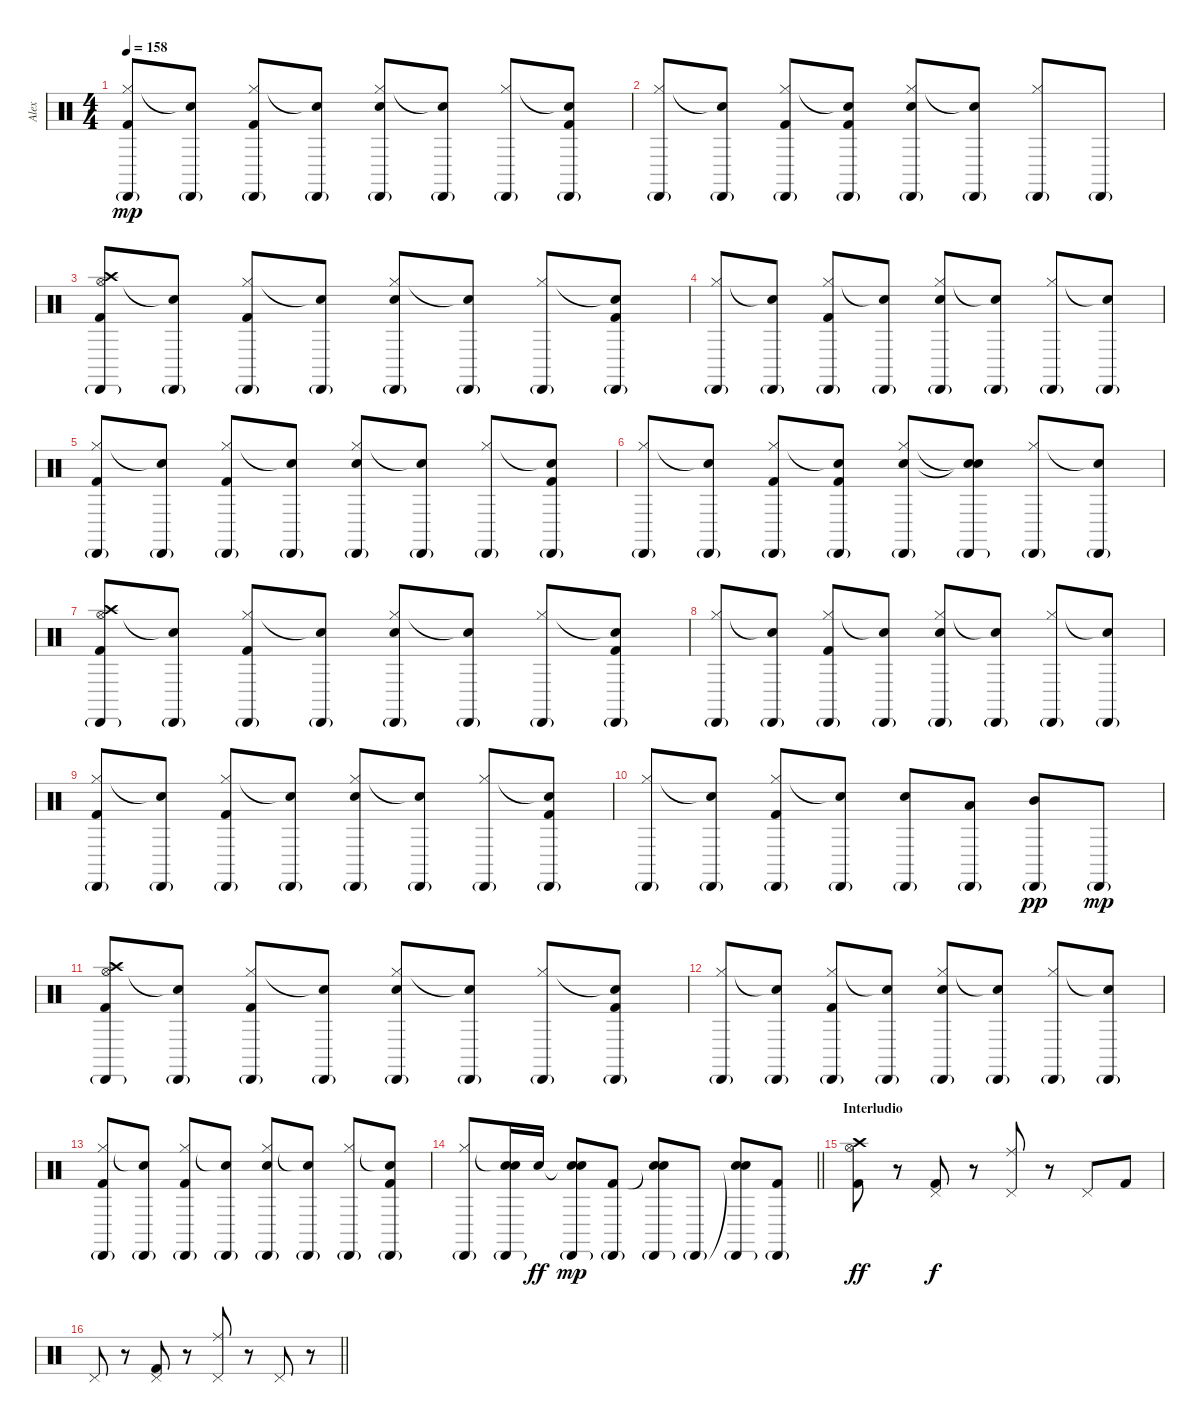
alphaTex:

\track ("Alex" "Alex") {instrument percussion}
\staff {score}
\articulation defaults
\ts (4 4)
\tempo 158
\clef neutral
\ks c
("Hi-Hat (closed)" "Kick (hit) 2" "Cabasa (hit)"{g}).8{dy mp} ("Snare (hit)"{t} "Cabasa (hit)"{g}).8 ("Hi-Hat (closed)" "Kick (hit) 2" "Cabasa (hit)"{g}).8 ("Snare (hit)"{t} "Cabasa (hit)"{g}).8 ("Hi-Hat (closed)" "Electric Snare (hit)" "Cabasa (hit)"{g}).8 ("Snare (hit)"{t} "Cabasa (hit)"{g}).8 ("Hi-Hat (closed)" "Cabasa (hit)"{g}).8 ("Snare (hit)"{t} "Kick (hit) 2" "Cabasa (hit)"{g}).8 |
("Hi-Hat (closed)" "Cabasa (hit)"{g}).8 ("Snare (hit)"{t} "Cabasa (hit)"{g}).8 ("Hi-Hat (closed)" "Kick (hit) 2" "Cabasa (hit)"{g}).8 ("Snare (hit)"{t} "Kick (hit) 2" "Cabasa (hit)"{g}).8 ("Hi-Hat (closed)" "Electric Snare (hit)" "Cabasa (hit)"{g}).8 ("Snare (hit)"{t} "Cabasa (hit)"{g}).8 ("Hi-Hat (closed)" "Cabasa (hit)"{g}).8 "Cabasa (hit)"{g}.8 |
("Hi-Hat (open)" "Kick (hit) 2" "Crash high (hit)" "Cabasa (hit)"{g}).8 ("Snare (hit)"{t} "Cabasa (hit)"{g}).8 ("Hi-Hat (closed)" "Kick (hit) 2" "Cabasa (hit)"{g}).8 ("Snare (hit)"{t} "Cabasa (hit)"{g}).8 ("Hi-Hat (closed)" "Electric Snare (hit)" "Cabasa (hit)"{g}).8 ("Snare (hit)"{t} "Cabasa (hit)"{g}).8 ("Hi-Hat (closed)" "Cabasa (hit)"{g}).8 ("Snare (hit)"{t} "Kick (hit) 2" "Cabasa (hit)"{g}).8 |
("Hi-Hat (closed)" "Cabasa (hit)"{g}).8 ("Snare (hit)"{t} "Cabasa (hit)"{g}).8 ("Hi-Hat (closed)" "Kick (hit) 2" "Cabasa (hit)"{g}).8 ("Snare (hit)"{t} "Cabasa (hit)"{g}).8 ("Hi-Hat (closed)" "Electric Snare (hit)" "Cabasa (hit)"{g}).8 ("Snare (hit)"{t} "Cabasa (hit)"{g}).8 ("Hi-Hat (closed)" "Cabasa (hit)"{g}).8 ("Snare (hit)"{t} "Cabasa (hit)"{g}).8 |
("Hi-Hat (closed)" "Kick (hit) 2" "Cabasa (hit)"{g}).8 ("Snare (hit)"{t} "Cabasa (hit)"{g}).8 ("Hi-Hat (closed)" "Kick (hit) 2" "Cabasa (hit)"{g}).8 ("Snare (hit)"{t} "Cabasa (hit)"{g}).8 ("Hi-Hat (closed)" "Electric Snare (hit)" "Cabasa (hit)"{g}).8 ("Snare (hit)"{t} "Cabasa (hit)"{g}).8 ("Hi-Hat (closed)" "Cabasa (hit)"{g}).8 ("Snare (hit)"{t} "Kick (hit) 2" "Cabasa (hit)"{g}).8 |
("Hi-Hat (closed)" "Cabasa (hit)"{g}).8 ("Snare (hit)"{t} "Cabasa (hit)"{g}).8 ("Hi-Hat (closed)" "Kick (hit) 2" "Cabasa (hit)"{g}).8 ("Snare (hit)"{t} "Kick (hit) 2" "Cabasa (hit)"{g}).8 ("Hi-Hat (closed)" "Electric Snare (hit)" "Cabasa (hit)"{g}).8 ("Snare (hit)"{t} "Snare (hit)"{t} "Cabasa (hit)"{g}).8 ("Hi-Hat (closed)" "Cabasa (hit)"{g}).8 ("Snare (hit)"{t} "Cabasa (hit)"{g}).8 |
("Hi-Hat (open)" "Kick (hit) 2" "Crash high (hit)" "Cabasa (hit)"{g}).8 ("Snare (hit)"{t} "Cabasa (hit)"{g}).8 ("Hi-Hat (closed)" "Kick (hit) 2" "Cabasa (hit)"{g}).8 ("Snare (hit)"{t} "Cabasa (hit)"{g}).8 ("Hi-Hat (closed)" "Electric Snare (hit)" "Cabasa (hit)"{g}).8 ("Snare (hit)"{t} "Cabasa (hit)"{g}).8 ("Hi-Hat (closed)" "Cabasa (hit)"{g}).8 ("Snare (hit)"{t} "Kick (hit) 2" "Cabasa (hit)"{g}).8 |
("Hi-Hat (closed)" "Cabasa (hit)"{g}).8 ("Snare (hit)"{t} "Cabasa (hit)"{g}).8 ("Hi-Hat (closed)" "Kick (hit) 2" "Cabasa (hit)"{g}).8 ("Snare (hit)"{t} "Cabasa (hit)"{g}).8 ("Hi-Hat (closed)" "Electric Snare (hit)" "Cabasa (hit)"{g}).8 ("Snare (hit)"{t} "Cabasa (hit)"{g}).8 ("Hi-Hat (closed)" "Cabasa (hit)"{g}).8 ("Snare (hit)"{t} "Cabasa (hit)"{g}).8 |
("Hi-Hat (closed)" "Kick (hit) 2" "Cabasa (hit)"{g}).8 ("Snare (hit)"{t} "Cabasa (hit)"{g}).8 ("Hi-Hat (closed)" "Kick (hit) 2" "Cabasa (hit)"{g}).8 ("Snare (hit)"{t} "Cabasa (hit)"{g}).8 ("Hi-Hat (closed)" "Electric Snare (hit)" "Cabasa (hit)"{g}).8 ("Snare (hit)"{t} "Cabasa (hit)"{g}).8 ("Hi-Hat (closed)" "Cabasa (hit)"{g}).8 ("Snare (hit)"{t} "Kick (hit) 2" "Cabasa (hit)"{g}).8 |
("Hi-Hat (closed)" "Cabasa (hit)"{g}).8 ("Snare (hit)"{t} "Cabasa (hit)"{g}).8 ("Hi-Hat (closed)" "Kick (hit) 2" "Cabasa (hit)"{g}).8 ("Snare (hit)"{t} "Cabasa (hit)"{g}).8 ("Electric Snare (hit)" "Cabasa (hit)"{g}).8 ("Low Tom (hit)" "Cabasa (hit)"{g}).8 ("Mid Tom (hit)" "Cabasa (hit)"{g}).8{dy pp} "Cabasa (hit)"{g}.8{dy mp} |
("Hi-Hat (open)" "Kick (hit) 2" "Crash high (hit)" "Cabasa (hit)"{g}).8 ("Snare (hit)"{t} "Cabasa (hit)"{g}).8 ("Hi-Hat (closed)" "Kick (hit) 2" "Cabasa (hit)"{g}).8 ("Snare (hit)"{t} "Cabasa (hit)"{g}).8 ("Hi-Hat (closed)" "Electric Snare (hit)" "Cabasa (hit)"{g}).8 ("Snare (hit)"{t} "Cabasa (hit)"{g}).8 ("Hi-Hat (closed)" "Cabasa (hit)"{g}).8 ("Snare (hit)"{t} "Kick (hit) 2" "Cabasa (hit)"{g}).8 |
("Hi-Hat (closed)" "Cabasa (hit)"{g}).8 ("Snare (hit)"{t} "Cabasa (hit)"{g}).8 ("Hi-Hat (closed)" "Kick (hit) 2" "Cabasa (hit)"{g}).8 ("Snare (hit)"{t} "Cabasa (hit)"{g}).8 ("Hi-Hat (closed)" "Electric Snare (hit)" "Cabasa (hit)"{g}).8 ("Snare (hit)"{t} "Cabasa (hit)"{g}).8 ("Hi-Hat (closed)" "Cabasa (hit)"{g}).8 ("Snare (hit)"{t} "Cabasa (hit)"{g}).8 |
("Hi-Hat (closed)" "Kick (hit) 2" "Cabasa (hit)"{g}).8 ("Snare (hit)"{t} "Cabasa (hit)"{g}).8 ("Hi-Hat (closed)" "Kick (hit) 2" "Cabasa (hit)"{g}).8 ("Snare (hit)"{t} "Cabasa (hit)"{g}).8 ("Hi-Hat (closed)" "Electric Snare (hit)" "Cabasa (hit)"{g}).8 ("Snare (hit)"{t} "Cabasa (hit)"{g}).8 ("Hi-Hat (closed)" "Cabasa (hit)"{g}).8 ("Snare (hit)"{t} "Kick (hit) 2" "Cabasa (hit)"{g}).8 |
\barLineRight lightlight
("Hi-Hat (closed)" "Cabasa (hit)"{g}).8 ("Snare (hit)"{t} "Electric Snare (hit)" "Cabasa (hit)"{g}).16 "Electric Snare (hit)".16{dy ff} ("Snare (hit)"{t} "Electric Snare (hit)" "Cabasa (hit)"{g}).8{dy mp} ("Kick (hit) 2" "Cabasa (hit)"{g}).8 ("Snare (hit)"{t} "Electric Snare (hit)" "Cabasa (hit)"{g}).8 "Cabasa (hit)"{g}.8 ("Snare (hit)"{t} "Electric Snare (hit)" "Cabasa (hit)"{g}).8 ("Kick (hit) 2" "Cabasa (hit)"{g}).8 |
\section ("" "Interludio")
("Hi-Hat (open)" "Kick (hit) 2" "Crash high (hit)").8{dy ff} r.8 ("Pedal Hi-Hat (hit)" "Kick (hit) 2").8{dy f} r.8 ("Pedal Hi-Hat (hit)" "Ride (middle)").8 r.8 "Pedal Hi-Hat (hit)".8 "Kick (hit) 2".8 |
\barLineRight lightlight "Pedal Hi-Hat (hit)".8
r.8 ("Pedal Hi-Hat (hit)" "Kick (hit) 2").8 r.8 ("Pedal Hi-Hat (hit)" "Ride (middle)").8 r.8 "Pedal Hi-Hat (hit)".8 r.8
